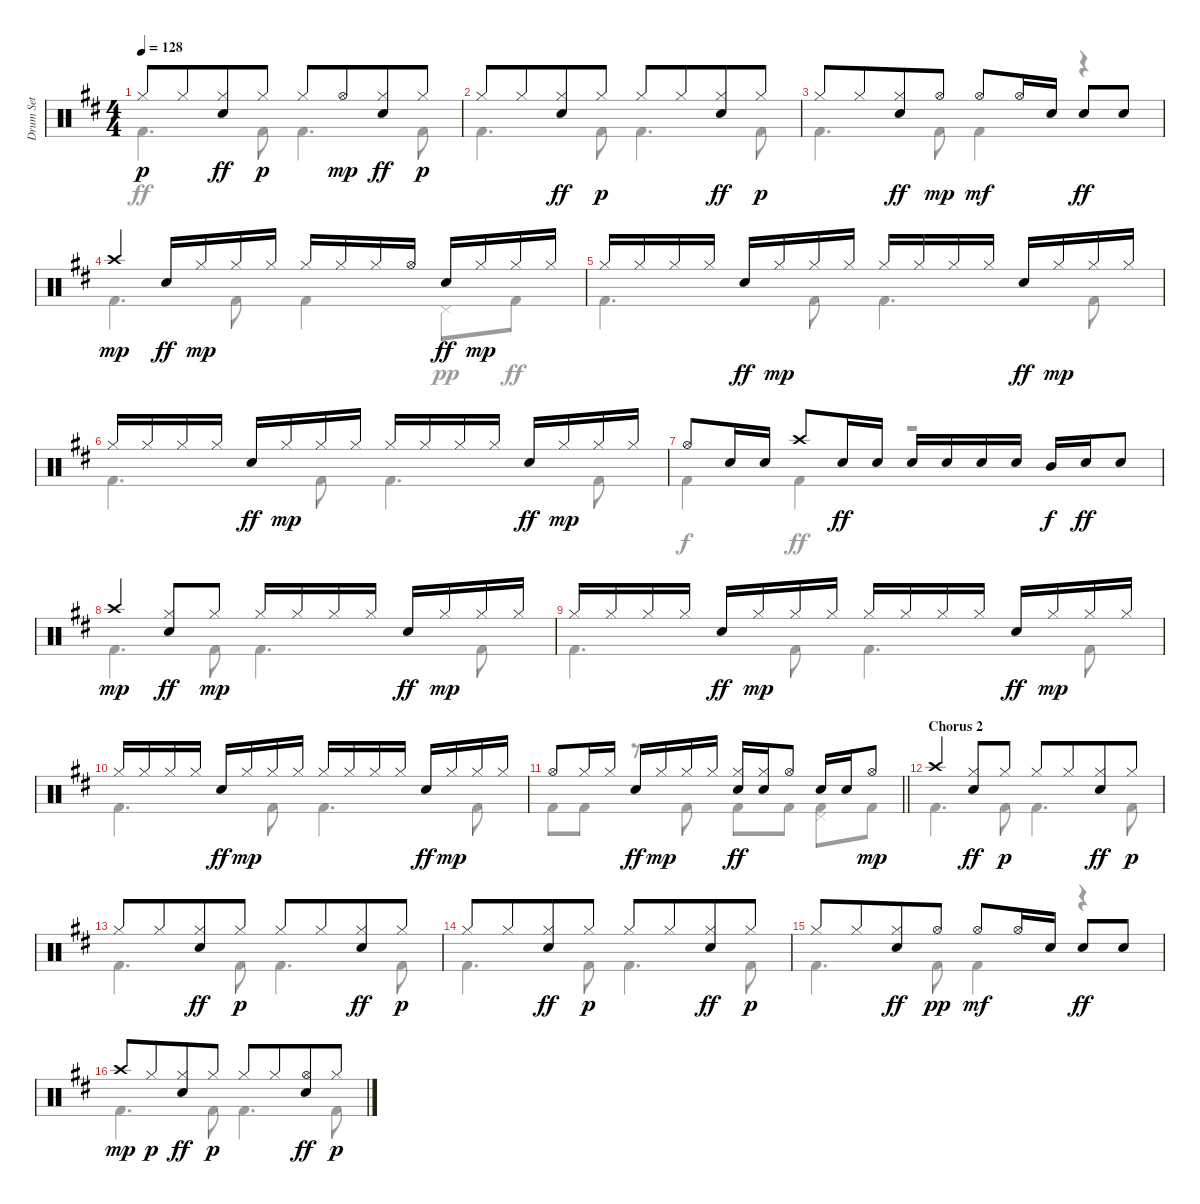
\track ("Drum Set" "Drum Set") {instrument percussion}
\staff {score}
\articulation defaults
\voice
\ts (4 4)
\tempo 128
\clef neutral
\ks bminor "Hi-Hat (closed)".8{dy p} "Hi-Hat (closed)".8{beam merge}
("Hi-Hat (closed)" "Electric Snare (hit)").8{dy ff} "Hi-Hat (closed)".8{dy p} "Hi-Hat (closed)".8 "Hi-Hat (open)".8{dy mp beam merge} ("Hi-Hat (closed)" "Electric Snare (hit)").8{dy ff} "Hi-Hat (closed)".8{dy p} |
"Hi-Hat (closed)".8 "Hi-Hat (closed)".8{beam merge} ("Hi-Hat (closed)" "Electric Snare (hit)").8{dy ff} "Hi-Hat (closed)".8{dy p} "Hi-Hat (closed)".8 "Hi-Hat (closed)".8{beam merge} ("Hi-Hat (closed)" "Electric Snare (hit)").8{dy ff} "Hi-Hat (closed)".8{dy p} |
"Hi-Hat (closed)".8 "Hi-Hat (closed)".8{beam merge} ("Hi-Hat (closed)" "Electric Snare (hit)").8{dy ff} "Hi-Hat (open)".8{dy mp} "Hi-Hat (open)".8{dy mf} "Hi-Hat (open)".16 "Electric Snare (hit)".16{beam split} "Electric Snare (hit)".8{dy ff} "Electric Snare (hit)".8 |
"Crash high (hit)".4{dy mp} "Electric Snare (hit)".16{dy ff} "Hi-Hat (closed)".16{dy mp} "Hi-Hat (closed)".16 "Hi-Hat (closed)".16 "Hi-Hat (closed)".16 "Hi-Hat (closed)".16 "Hi-Hat (closed)".16 "Hi-Hat (open)".16 "Electric Snare (hit)".16{dy ff} "Hi-Hat (closed)".16{dy mp} "Hi-Hat (closed)".16 "Hi-Hat (closed)".16 |
"Hi-Hat (closed)".16 "Hi-Hat (closed)".16 "Hi-Hat (closed)".16 "Hi-Hat (closed)".16 "Electric Snare (hit)".16{dy ff} "Hi-Hat (closed)".16{dy mp} "Hi-Hat (closed)".16 "Hi-Hat (closed)".16 "Hi-Hat (closed)".16 "Hi-Hat (closed)".16 "Hi-Hat (closed)".16 "Hi-Hat (closed)".16 "Electric Snare (hit)".16{dy ff} "Hi-Hat (closed)".16{dy mp} "Hi-Hat (closed)".16 "Hi-Hat (closed)".16 |
"Hi-Hat (closed)".16 "Hi-Hat (closed)".16 "Hi-Hat (closed)".16 "Hi-Hat (closed)".16 "Electric Snare (hit)".16{dy ff} "Hi-Hat (closed)".16{dy mp} "Hi-Hat (closed)".16 "Hi-Hat (closed)".16 "Hi-Hat (closed)".16 "Hi-Hat (closed)".16 "Hi-Hat (closed)".16 "Hi-Hat (closed)".16 "Electric Snare (hit)".16{dy ff} "Hi-Hat (closed)".16{dy mp} "Hi-Hat (closed)".16 "Hi-Hat (closed)".16 |
"Hi-Hat (open)".8 "Electric Snare (hit)".16 "Electric Snare (hit)".16 "Crash high (hit)".8 "Electric Snare (hit)".16{dy ff} "Electric Snare (hit)".16 "Electric Snare (hit)".16 "Electric Snare (hit)".16 "Electric Snare (hit)".16 "Electric Snare (hit)".16 "Mid Tom (hit)".16{dy f} "Electric Snare (hit)".16{dy ff} "Electric Snare (hit)".8 |
"Crash high (hit)".4{dy mp} ("Hi-Hat (closed)" "Electric Snare (hit)").8{dy ff} "Hi-Hat (closed)".8{dy mp} "Hi-Hat (closed)".16 "Hi-Hat (closed)".16 "Hi-Hat (closed)".16 "Hi-Hat (closed)".16 "Electric Snare (hit)".16{dy ff} "Hi-Hat (closed)".16{dy mp} "Hi-Hat (closed)".16 "Hi-Hat (closed)".16 |
"Hi-Hat (closed)".16 "Hi-Hat (closed)".16 "Hi-Hat (closed)".16 "Hi-Hat (closed)".16 "Electric Snare (hit)".16{dy ff} "Hi-Hat (closed)".16{dy mp} "Hi-Hat (closed)".16 "Hi-Hat (closed)".16 "Hi-Hat (closed)".16 "Hi-Hat (closed)".16 "Hi-Hat (closed)".16 "Hi-Hat (closed)".16 "Electric Snare (hit)".16{dy ff} "Hi-Hat (closed)".16{dy mp} "Hi-Hat (closed)".16 "Hi-Hat (closed)".16 |
"Hi-Hat (closed)".16 "Hi-Hat (closed)".16 "Hi-Hat (closed)".16 "Hi-Hat (closed)".16 "Electric Snare (hit)".16{dy ff} "Hi-Hat (closed)".16{dy mp} "Hi-Hat (closed)".16 "Hi-Hat (closed)".16 "Hi-Hat (closed)".16 "Hi-Hat (closed)".16 "Hi-Hat (closed)".16 "Hi-Hat (closed)".16 "Electric Snare (hit)".16{dy ff} "Hi-Hat (closed)".16{dy mp} "Hi-Hat (closed)".16 "Hi-Hat (closed)".16 |
\barLineRight lightlight "Hi-Hat (open)".8 "Hi-Hat (closed)".16 "Hi-Hat (closed)".16 "Electric Snare (hit)".16{dy ff} "Hi-Hat (closed)".16{dy mp} "Hi-Hat (closed)".16 "Hi-Hat (closed)".16
("Hi-Hat (closed)" "Electric Snare (hit)").16{dy ff} ("Hi-Hat (closed)" "Electric Snare (hit)").16 "Hi-Hat (open)".8 "Electric Snare (hit)".16 "Electric Snare (hit)".16 "Hi-Hat (open)".8{dy mp} |
\section ("" "Chorus 2")
"Crash high (hit)".4 ("Hi-Hat (closed)" "Electric Snare (hit)").8{dy ff} "Hi-Hat (closed)".8{dy p} "Hi-Hat (closed)".8 "Hi-Hat (closed)".8{beam merge} ("Hi-Hat (closed)" "Electric Snare (hit)").8{dy ff} "Hi-Hat (closed)".8{dy p} |
"Hi-Hat (closed)".8 "Hi-Hat (closed)".8{beam merge} ("Hi-Hat (closed)" "Electric Snare (hit)").8{dy ff} "Hi-Hat (closed)".8{dy p} "Hi-Hat (closed)".8 "Hi-Hat (closed)".8{beam merge} ("Hi-Hat (closed)" "Electric Snare (hit)").8{dy ff} "Hi-Hat (closed)".8{dy p} |
"Hi-Hat (closed)".8 "Hi-Hat (closed)".8{beam merge} ("Hi-Hat (closed)" "Electric Snare (hit)").8{dy ff} "Hi-Hat (closed)".8{dy p} "Hi-Hat (closed)".8 "Hi-Hat (closed)".8{beam merge} ("Hi-Hat (closed)" "Electric Snare (hit)").8{dy ff} "Hi-Hat (closed)".8{dy p} |
"Hi-Hat (closed)".8 "Hi-Hat (closed)".8{beam merge} ("Hi-Hat (closed)" "Electric Snare (hit)").8{dy ff} "Hi-Hat (open)".8{dy pp} "Hi-Hat (open)".8{dy mf} "Hi-Hat (open)".16 "Electric Snare (hit)".16{beam split} "Electric Snare (hit)".8{dy ff} "Electric Snare (hit)".8 |
"Crash high (hit)".8{dy mp} "Hi-Hat (closed)".8{dy p beam merge} ("Hi-Hat (closed)" "Electric Snare (hit)").8{dy ff} "Hi-Hat (closed)".8{dy p} "Hi-Hat (closed)".8 "Hi-Hat (closed)".8{beam merge} ("Hi-Hat (open)" "Electric Snare (hit)").8{dy ff} "Hi-Hat (closed)".8{dy p}
\voice
\clef neutral
\ottava regular
\simile none
\ks bminor "Kick (hit) 2".4{d dy ff} "Kick (hit) 2".8 "Kick (hit) 2".4{d} "Kick (hit) 2".8
|
"Kick (hit) 2".4{d} "Kick (hit) 2".8 "Kick (hit) 2".4{d} "Kick (hit) 2".8 |
"Kick (hit) 2".4{d} "Kick (hit) 2".8 "Kick (hit) 2".4 r.4 |
"Kick (hit) 2".4{d} "Kick (hit) 2".8 "Kick (hit) 2".4 "Pedal Hi-Hat (hit)".8{dy pp} "Kick (hit) 2".8{dy ff} |
"Kick (hit) 2".4{d} "Kick (hit) 2".8 "Kick (hit) 2".4{d} "Kick (hit) 2".8 |
"Kick (hit) 2".4{d} "Kick (hit) 2".8 "Kick (hit) 2".4{d} "Kick (hit) 2".8 |
"Kick (hit) 2".4{dy f} "Kick (hit) 2".4{dy ff} r.2 |
"Kick (hit) 2".4{d} "Kick (hit) 2".8 "Kick (hit) 2".4{d} "Kick (hit) 2".8 |
"Kick (hit) 2".4{d} "Kick (hit) 2".8 "Kick (hit) 2".4{d} "Kick (hit) 2".8 |
"Kick (hit) 2".4{d} "Kick (hit) 2".8 "Kick (hit) 2".4{d} "Kick (hit) 2".8 |
\barLineRight lightlight "Kick (hit) 2".8 "Kick (hit) 2".8
r.8 "Kick (hit) 2".8 "Kick (hit) 2".8 "Kick (hit) 2".8 ("Kick (hit) 2" "Pedal Hi-Hat (hit)").8 "Kick (hit) 2".8 |
"Kick (hit) 2".4{d} "Kick (hit) 2".8 "Kick (hit) 2".4{d} "Kick (hit) 2".8 |
"Kick (hit) 2".4{d} "Kick (hit) 2".8 "Kick (hit) 2".4{d} "Kick (hit) 2".8 |
"Kick (hit) 2".4{d} "Kick (hit) 2".8 "Kick (hit) 2".4{d} "Kick (hit) 2".8 |
"Kick (hit) 2".4{d} "Kick (hit) 2".8 "Kick (hit) 2".4 r.4 |
"Kick (hit) 2".4{d} "Kick (hit) 2".8 "Kick (hit) 2".4{d} "Kick (hit) 2".8
